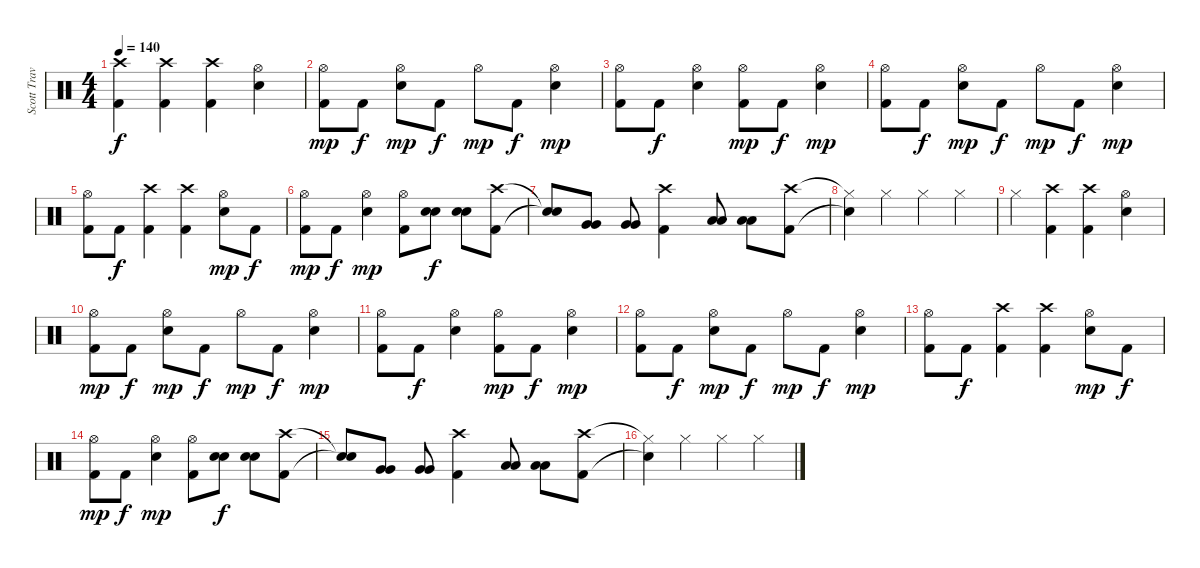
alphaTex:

\track ("Scott Travis" "Scott Trav") {instrument percussion}
\staff {score}
\articulation defaults
\ts (4 4)
\tempo 140
\clef neutral
\ks c
("Crash high (hit)" "Kick (hit) 2").4{dy f} ("Crash high (hit)" "Kick (hit) 2").4 ("Crash high (hit)" "Kick (hit) 2").4 ("Hi-Hat (open)" "Snare (hit) 2").4 |
("Hi-Hat (open)" "Kick (hit) 2").8{dy mp} "Kick (hit) 2".8{dy f} ("Hi-Hat (open)" "Snare (hit) 2").8{dy mp} "Kick (hit) 2".8{dy f} "Hi-Hat (open)".8{dy mp} "Kick (hit) 2".8{dy f} ("Hi-Hat (open)" "Snare (hit) 2").4{dy mp} |
("Hi-Hat (open)" "Kick (hit) 2").8 "Kick (hit) 2".8{dy f} ("Hi-Hat (open)" "Snare (hit) 2").4 ("Hi-Hat (open)" "Kick (hit) 2").8{dy mp} "Kick (hit) 2".8{dy f} ("Hi-Hat (open)" "Snare (hit) 2").4{dy mp} |
("Hi-Hat (open)" "Kick (hit) 2").8 "Kick (hit) 2".8{dy f} ("Hi-Hat (open)" "Snare (hit) 2").8{dy mp} "Kick (hit) 2".8{dy f} "Hi-Hat (open)".8{dy mp} "Kick (hit) 2".8{dy f} ("Hi-Hat (open)" "Snare (hit) 2").4{dy mp} |
("Hi-Hat (open)" "Kick (hit) 2").8 "Kick (hit) 2".8{dy f} ("Crash high (hit)" "Kick (hit) 2").4 ("Crash high (hit)" "Kick (hit) 2").4 ("Hi-Hat (open)" "Snare (hit) 2").8{dy mp} "Kick (hit) 2".8{dy f} |
("Hi-Hat (open)" "Kick (hit) 2").8{dy mp} "Kick (hit) 2".8{dy f} ("Hi-Hat (open)" "Snare (hit) 2").4{dy mp} ("Hi-Hat (open)" "Kick (hit) 2").8 ("Snare (hit) 2" "Snare (hit) 2").8{dy f} ("Snare (hit) 2" "Snare (hit) 2").8 ("Crash high (hit)" "Kick (hit) 2").8 |
("Snare (hit)"{t} "Snare (hit)"{t}).8 ("Very Low Tom (hit)" "Very Low Tom (hit)").8 ("Very Low Tom (hit)" "Very Low Tom (hit)").8 ("Crash high (hit)" "Kick (hit) 2").4 ("Low Tom (hit)" "Low Tom (hit)").8 ("Low Tom (hit)" "Low Tom (hit)").8 ("Crash high (hit)" "Kick (hit) 2").8 |
("Hi-Hat (closed)"{t} "Snare (hit)"{t}).4 "Hi-Hat (closed)".4 "Hi-Hat (closed)".4 "Hi-Hat (closed)".4 |
"Hi-Hat (closed)".4 ("Crash high (hit)" "Kick (hit) 2").4 ("Crash high (hit)" "Kick (hit) 2").4 ("Hi-Hat (open)" "Snare (hit) 2").4 |
("Hi-Hat (open)" "Kick (hit) 2").8{dy mp} "Kick (hit) 2".8{dy f} ("Hi-Hat (open)" "Snare (hit) 2").8{dy mp} "Kick (hit) 2".8{dy f} "Hi-Hat (open)".8{dy mp} "Kick (hit) 2".8{dy f} ("Hi-Hat (open)" "Snare (hit) 2").4{dy mp} |
("Hi-Hat (open)" "Kick (hit) 2").8 "Kick (hit) 2".8{dy f} ("Hi-Hat (open)" "Snare (hit) 2").4 ("Hi-Hat (open)" "Kick (hit) 2").8{dy mp} "Kick (hit) 2".8{dy f} ("Hi-Hat (open)" "Snare (hit) 2").4{dy mp} |
("Hi-Hat (open)" "Kick (hit) 2").8 "Kick (hit) 2".8{dy f} ("Hi-Hat (open)" "Snare (hit) 2").8{dy mp} "Kick (hit) 2".8{dy f} "Hi-Hat (open)".8{dy mp} "Kick (hit) 2".8{dy f} ("Hi-Hat (open)" "Snare (hit) 2").4{dy mp} |
("Hi-Hat (open)" "Kick (hit) 2").8 "Kick (hit) 2".8{dy f} ("Crash high (hit)" "Kick (hit) 2").4 ("Crash high (hit)" "Kick (hit) 2").4 ("Hi-Hat (open)" "Snare (hit) 2").8{dy mp} "Kick (hit) 2".8{dy f} |
("Hi-Hat (open)" "Kick (hit) 2").8{dy mp} "Kick (hit) 2".8{dy f} ("Hi-Hat (open)" "Snare (hit) 2").4{dy mp} ("Hi-Hat (open)" "Kick (hit) 2").8 ("Snare (hit) 2" "Snare (hit) 2").8{dy f} ("Snare (hit) 2" "Snare (hit) 2").8 ("Crash high (hit)" "Kick (hit) 2").8 |
("Snare (hit)"{t} "Snare (hit)"{t}).8 ("Very Low Tom (hit)" "Very Low Tom (hit)").8 ("Very Low Tom (hit)" "Very Low Tom (hit)").8 ("Crash high (hit)" "Kick (hit) 2").4 ("Low Tom (hit)" "Low Tom (hit)").8 ("Low Tom (hit)" "Low Tom (hit)").8 ("Crash high (hit)" "Kick (hit) 2").8 |
("Hi-Hat (closed)"{t} "Snare (hit)"{t}).4 "Hi-Hat (closed)".4 "Hi-Hat (closed)".4 "Hi-Hat (closed)".4
